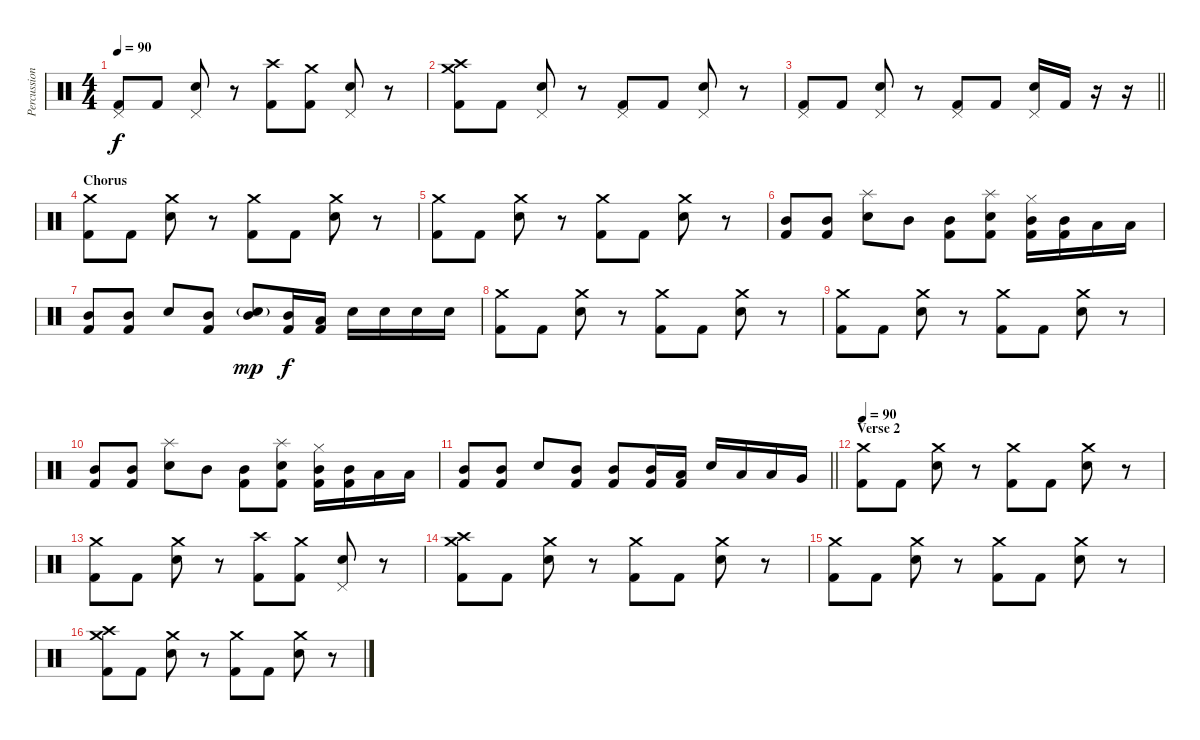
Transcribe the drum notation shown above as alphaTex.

\track ("Percussion" "Percussion") {instrument percussion}
\staff {score}
\articulation defaults
\ts (4 4)
\tempo 90
\clef neutral
\ks c
("Kick (hit) 2" "Pedal Hi-Hat (hit)").8{dy f} "Kick (hit) 2".8 ("Snare (hit) 2" "Pedal Hi-Hat (hit)").8 r.8 ("Kick (hit) 2" "Crash high (hit)").8 ("Kick (hit) 2" "Crash medium (hit)").8 ("Snare (hit) 2" "Pedal Hi-Hat (hit)").8 r.8 |
("Kick (hit) 2" "Crash medium (hit)" "Crash high (hit)").8 "Kick (hit) 2".8 ("Snare (hit) 2" "Pedal Hi-Hat (hit)").8 r.8 ("Kick (hit) 2" "Pedal Hi-Hat (hit)").8 "Kick (hit) 2".8 ("Snare (hit) 2" "Pedal Hi-Hat (hit)").8 r.8 |
\barLineRight lightlight
("Kick (hit) 2" "Pedal Hi-Hat (hit)").8 "Kick (hit) 2".8 ("Snare (hit) 2" "Pedal Hi-Hat (hit)").8 r.8 ("Kick (hit) 2" "Pedal Hi-Hat (hit)").8 "Kick (hit) 2".8 ("Snare (hit) 2" "Pedal Hi-Hat (hit)").16 "Kick (hit) 2".16 r.16 r.16 |
\section ("" "Chorus")
("Kick (hit) 2" "Crash medium (hit)").8 "Kick (hit) 2".8 ("Snare (hit) 2" "Crash medium (hit)").8 r.8 ("Kick (hit) 2" "Crash medium (hit)").8 "Kick (hit) 2".8 ("Snare (hit) 2" "Crash medium (hit)").8 r.8 |
("Kick (hit) 2" "Crash medium (hit)").8 "Kick (hit) 2".8 ("Snare (hit) 2" "Crash medium (hit)").8 r.8 ("Kick (hit) 2" "Crash medium (hit)").8 "Kick (hit) 2".8 ("Snare (hit) 2" "Crash medium (hit)").8 r.8 |
("Kick (hit) 2" "Mid Tom (hit)").8 ("Kick (hit) 2" "Mid Tom (hit)").8 ("Snare (hit) 2" "Splash (hit)").8 "Mid Tom (hit)".8 ("Kick (hit) 2" "Mid Tom (hit)").8 ("Kick (hit) 2" "Snare (hit) 2" "Splash (hit)").8 ("Kick (hit) 2" "Mid Tom (hit)" "Hi-Hat (closed)").16 ("Kick (hit) 2" "Mid Tom (hit)").16 "Low Tom (hit)".16 "Low Tom (hit)".16 |
("Kick (hit) 2" "Mid Tom (hit)").8 ("Kick (hit) 2" "Mid Tom (hit)").8 "Snare (hit) 2".8 ("Kick (hit) 2" "Mid Tom (hit)").8 ("Snare (hit) 2"{g} "Mid Tom (hit)").8{dy mp} ("Kick (hit) 2" "Mid Tom (hit)").16{dy f} ("Kick (hit) 2" "Low Tom (hit)").16 "Snare (hit) 2".16 "Snare (hit) 2".16 "Snare (hit) 2".16 "Snare (hit) 2".16 |
("Kick (hit) 2" "Crash medium (hit)").8 "Kick (hit) 2".8 ("Snare (hit) 2" "Crash medium (hit)").8 r.8 ("Kick (hit) 2" "Crash medium (hit)").8 "Kick (hit) 2".8 ("Snare (hit) 2" "Crash medium (hit)").8 r.8 |
("Kick (hit) 2" "Crash medium (hit)").8 "Kick (hit) 2".8 ("Snare (hit) 2" "Crash medium (hit)").8 r.8 ("Kick (hit) 2" "Crash medium (hit)").8 "Kick (hit) 2".8 ("Snare (hit) 2" "Crash medium (hit)").8 r.8 |
("Kick (hit) 2" "Mid Tom (hit)").8 ("Kick (hit) 2" "Mid Tom (hit)").8 ("Snare (hit) 2" "Splash (hit)").8 "Mid Tom (hit)".8 ("Kick (hit) 2" "Mid Tom (hit)").8 ("Kick (hit) 2" "Snare (hit) 2" "Splash (hit)").8 ("Kick (hit) 2" "Mid Tom (hit)" "Hi-Hat (closed)").16 ("Kick (hit) 2" "Mid Tom (hit)").16 "Low Tom (hit)".16 "Low Tom (hit)".16 |
\barLineRight lightlight
("Kick (hit) 2" "Mid Tom (hit)").8 ("Kick (hit) 2" "Mid Tom (hit)").8 "Snare (hit) 2".8 ("Kick (hit) 2" "Mid Tom (hit)").8 ("Kick (hit) 2" "Mid Tom (hit)").8 ("Kick (hit) 2" "Mid Tom (hit)").16 ("Kick (hit) 2" "Low Tom (hit)").16 "Snare (hit) 2".16 "Low Tom (hit)".16 "Low Tom (hit)".16 "Very Low Tom (hit)".16 |
\section ("" "Verse 2")
\tempo 90
("Kick (hit) 2" "Crash medium (hit)").8 "Kick (hit) 2".8 ("Snare (hit) 2" "Crash medium (hit)").8 r.8 ("Kick (hit) 2" "Crash medium (hit)").8 "Kick (hit) 2".8 ("Snare (hit) 2" "Crash medium (hit)").8 r.8 |
("Kick (hit) 2" "Crash medium (hit)").8 "Kick (hit) 2".8 ("Snare (hit) 2" "Crash medium (hit)").8 r.8 ("Kick (hit) 2" "Crash high (hit)").8 ("Kick (hit) 2" "Crash medium (hit)").8 ("Snare (hit) 2" "Pedal Hi-Hat (hit)").8 r.8 |
("Kick (hit) 2" "Crash medium (hit)" "Crash high (hit)").8 "Kick (hit) 2".8 ("Snare (hit) 2" "Crash medium (hit)").8 r.8 ("Kick (hit) 2" "Crash medium (hit)").8 "Kick (hit) 2".8 ("Snare (hit) 2" "Crash medium (hit)").8 r.8 |
("Kick (hit) 2" "Crash medium (hit)").8 "Kick (hit) 2".8 ("Snare (hit) 2" "Crash medium (hit)").8 r.8 ("Kick (hit) 2" "Crash medium (hit)").8 "Kick (hit) 2".8 ("Snare (hit) 2" "Crash medium (hit)").8 r.8 |
("Kick (hit) 2" "Crash medium (hit)" "Crash high (hit)").8 "Kick (hit) 2".8 ("Snare (hit) 2" "Crash medium (hit)").8 r.8 ("Kick (hit) 2" "Crash medium (hit)").8 "Kick (hit) 2".8 ("Snare (hit) 2" "Crash medium (hit)").8 r.8
